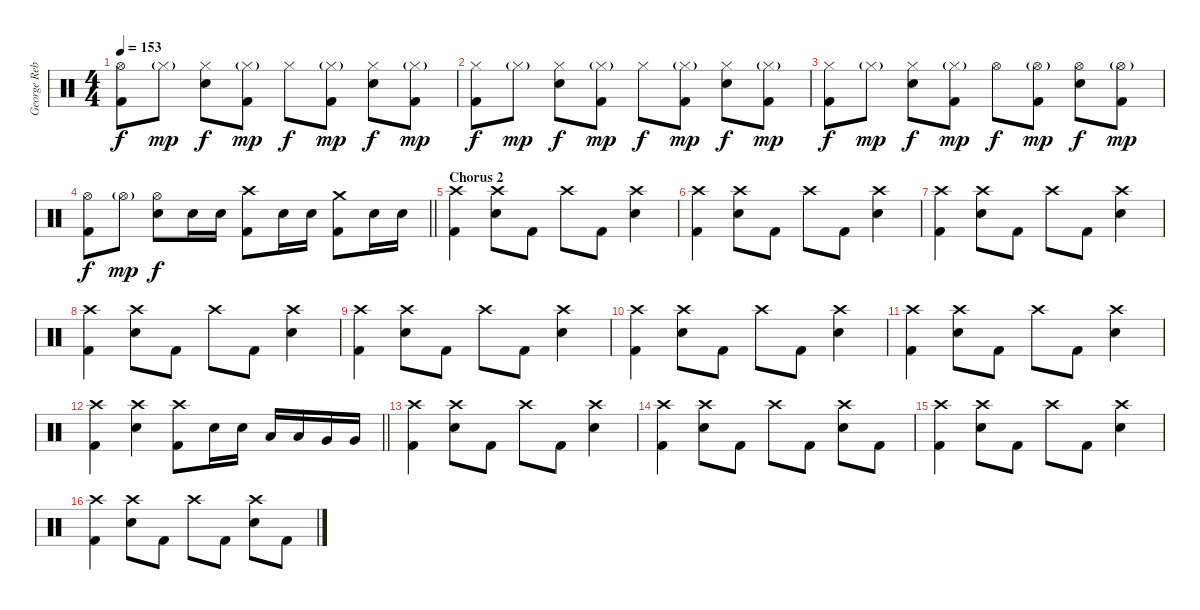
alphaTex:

\track ("George Rebelo (Drums)" "George Reb") {instrument percussion}
\staff {score}
\articulation defaults
\ts (4 4)
\tempo 153
\clef neutral
\ks c
("Hi-Hat (open)" "Kick (hit) 2").8{dy f} "Hi-Hat (closed)"{g}.8{dy mp} ("Hi-Hat (closed)" "Electric Snare (hit)").8{dy f} ("Hi-Hat (closed)"{g} "Kick (hit) 2").8{dy mp} "Hi-Hat (closed)".8{dy f} ("Hi-Hat (closed)"{g} "Kick (hit) 2").8{dy mp} ("Hi-Hat (closed)" "Electric Snare (hit)").8{dy f} ("Hi-Hat (closed)"{g} "Kick (hit) 2").8{dy mp} |
("Hi-Hat (closed)" "Kick (hit) 2").8{dy f} "Hi-Hat (closed)"{g}.8{dy mp} ("Hi-Hat (closed)" "Electric Snare (hit)").8{dy f} ("Hi-Hat (closed)"{g} "Kick (hit) 2").8{dy mp} "Hi-Hat (closed)".8{dy f} ("Hi-Hat (closed)"{g} "Kick (hit) 2").8{dy mp} ("Hi-Hat (closed)" "Electric Snare (hit)").8{dy f} ("Hi-Hat (closed)"{g} "Kick (hit) 2").8{dy mp} |
("Hi-Hat (closed)" "Kick (hit) 2").8{dy f} "Hi-Hat (closed)"{g}.8{dy mp} ("Hi-Hat (closed)" "Electric Snare (hit)").8{dy f} ("Hi-Hat (closed)"{g} "Kick (hit) 2").8{dy mp} "Hi-Hat (open)".8{dy f} ("Hi-Hat (open)"{g} "Kick (hit) 2").8{dy mp} ("Hi-Hat (open)" "Electric Snare (hit)").8{dy f} ("Hi-Hat (open)"{g} "Kick (hit) 2").8{dy mp} |
\barLineRight lightlight
("Hi-Hat (open)" "Kick (hit) 2").8{dy f} "Hi-Hat (open)"{g}.8{dy mp} ("Hi-Hat (open)" "Electric Snare (hit)").8{dy f} "Electric Snare (hit)".16 "Electric Snare (hit)".16 ("Crash high (hit)" "Kick (hit) 2").8 "Electric Snare (hit)".16 "Electric Snare (hit)".16 ("Crash medium (hit)" "Kick (hit) 2").8 "Electric Snare (hit)".16 "Electric Snare (hit)".16 |
\section ("" "Chorus 2")
("Crash high (hit)" "Kick (hit) 2").4 ("Crash high (hit)" "Electric Snare (hit)").8 "Kick (hit) 2".8 "Crash high (hit)".8 "Kick (hit) 2".8 ("Crash high (hit)" "Electric Snare (hit)").4 |
("Crash high (hit)" "Kick (hit) 2").4 ("Crash high (hit)" "Electric Snare (hit)").8 "Kick (hit) 2".8 "Crash high (hit)".8 "Kick (hit) 2".8 ("Crash high (hit)" "Electric Snare (hit)").4 |
("Crash high (hit)" "Kick (hit) 2").4 ("Crash high (hit)" "Electric Snare (hit)").8 "Kick (hit) 2".8 "Crash high (hit)".8 "Kick (hit) 2".8 ("Crash high (hit)" "Electric Snare (hit)").4 |
("Crash high (hit)" "Kick (hit) 2").4 ("Crash high (hit)" "Electric Snare (hit)").8 "Kick (hit) 2".8 "Crash high (hit)".8 "Kick (hit) 2".8 ("Crash high (hit)" "Electric Snare (hit)").4 |
("Crash high (hit)" "Kick (hit) 2").4 ("Crash high (hit)" "Electric Snare (hit)").8 "Kick (hit) 2".8 "Crash high (hit)".8 "Kick (hit) 2".8 ("Crash high (hit)" "Electric Snare (hit)").4 |
("Crash high (hit)" "Kick (hit) 2").4 ("Crash high (hit)" "Electric Snare (hit)").8 "Kick (hit) 2".8 "Crash high (hit)".8 "Kick (hit) 2".8 ("Crash high (hit)" "Electric Snare (hit)").4 |
("Crash high (hit)" "Kick (hit) 2").4 ("Crash high (hit)" "Electric Snare (hit)").8 "Kick (hit) 2".8 "Crash high (hit)".8 "Kick (hit) 2".8 ("Crash high (hit)" "Electric Snare (hit)").4 |
\barLineRight lightlight
("Crash high (hit)" "Kick (hit) 2").4 ("Crash high (hit)" "Electric Snare (hit)").4 ("Crash high (hit)" "Kick (hit) 2").8 "Electric Snare (hit)".16 "Electric Snare (hit)".16 "Low Tom (hit)".16 "Low Tom (hit)".16 "Very Low Tom (hit)".16 "Very Low Tom (hit)".16 |
("Crash high (hit)" "Kick (hit) 2").4 ("Crash high (hit)" "Electric Snare (hit)").8 "Kick (hit) 2".8 "Crash high (hit)".8 "Kick (hit) 2".8 ("Crash high (hit)" "Electric Snare (hit)").4 |
("Crash high (hit)" "Kick (hit) 2").4 ("Crash high (hit)" "Electric Snare (hit)").8 "Kick (hit) 2".8 "Crash high (hit)".8 "Kick (hit) 2".8 ("Crash high (hit)" "Electric Snare (hit)").8 "Kick (hit) 2".8 |
("Crash high (hit)" "Kick (hit) 2").4 ("Crash high (hit)" "Electric Snare (hit)").8 "Kick (hit) 2".8 "Crash high (hit)".8 "Kick (hit) 2".8 ("Crash high (hit)" "Electric Snare (hit)").4 |
("Crash high (hit)" "Kick (hit) 2").4 ("Crash high (hit)" "Electric Snare (hit)").8 "Kick (hit) 2".8 "Crash high (hit)".8 "Kick (hit) 2".8 ("Crash high (hit)" "Electric Snare (hit)").8 "Kick (hit) 2".8
